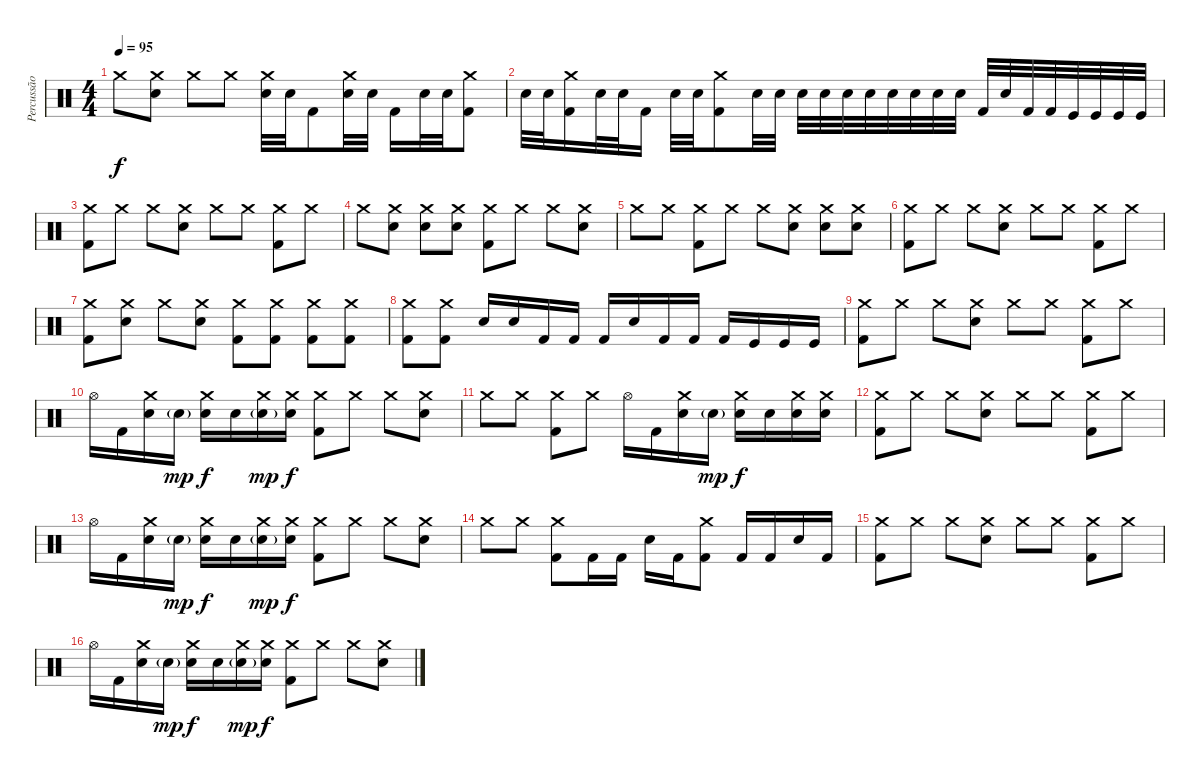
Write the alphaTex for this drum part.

\track ("Percussão" "Percussão") {instrument percussion}
\staff {score}
\articulation defaults
\ts (4 4)
\tempo 95
\clef neutral
\ks c "Crash medium (hit)".8{dy f}
("Snare (hit) 2" "Crash medium (hit)").8 "Crash medium (hit)".8 "Crash medium (hit)".8 ("Snare (hit) 2" "Crash medium (hit)").32 "Snare (hit) 2".32 "Kick (hit) 2".8 ("Snare (hit) 2" "Crash medium (hit)").32 "Snare (hit) 2".32 "Kick (hit) 2".16 "Snare (hit) 2".32 "Snare (hit) 2".32 ("Kick (hit) 2" "Crash medium (hit)").8 |
"Snare (hit) 2".32 "Snare (hit) 2".32 ("Kick (hit) 2" "Crash medium (hit)").16 "Snare (hit) 2".32 "Snare (hit) 2".32 "Kick (hit) 2".16 "Snare (hit) 2".32 "Snare (hit) 2".32 ("Kick (hit) 2" "Crash medium (hit)").8 "Snare (hit) 2".32 "Snare (hit) 2".32 "Snare (hit) 2".32 "Snare (hit) 2".32 "Electric Snare (hit)".32 "Electric Snare (hit)".32 "Electric Snare (hit)".32 "Electric Snare (hit)".32 "Snare (hit) 2".32 "Snare (hit) 2".32 "Kick (hit) 2".32 "Snare (hit) 2".32 "Kick (hit) 2".32 "Kick (hit) 2".32 "Kick (hit)".32 "Kick (hit)".32 "Kick (hit)".32 "Kick (hit)".32 |
("Kick (hit) 2" "Crash medium (hit)").8 "Crash medium (hit)".8 "Crash medium (hit)".8 ("Electric Snare (hit)" "Crash medium (hit)").8 "Crash medium (hit)".8 "Crash medium (hit)".8 ("Kick (hit) 2" "Crash medium (hit)").8 "Crash medium (hit)".8 |
"Crash medium (hit)".8 ("Electric Snare (hit)" "Crash medium (hit)").8 ("Electric Snare (hit)" "Crash medium (hit)").8 ("Electric Snare (hit)" "Crash medium (hit)").8 ("Kick (hit) 2" "Crash medium (hit)").8 "Crash medium (hit)".8 "Crash medium (hit)".8 ("Electric Snare (hit)" "Crash medium (hit)").8 |
"Crash medium (hit)".8 "Crash medium (hit)".8 ("Kick (hit) 2" "Crash medium (hit)").8 "Crash medium (hit)".8 "Crash medium (hit)".8 ("Electric Snare (hit)" "Crash medium (hit)").8 ("Electric Snare (hit)" "Crash medium (hit)").8 ("Electric Snare (hit)" "Crash medium (hit)").8 |
("Kick (hit) 2" "Crash medium (hit)").8 "Crash medium (hit)".8 "Crash medium (hit)".8 ("Electric Snare (hit)" "Crash medium (hit)").8 "Crash medium (hit)".8 "Crash medium (hit)".8 ("Kick (hit) 2" "Crash medium (hit)").8 "Crash medium (hit)".8 |
("Kick (hit) 2" "Crash medium (hit)").8 ("Electric Snare (hit)" "Crash medium (hit)").8 "Crash medium (hit)".8 ("Electric Snare (hit)" "Crash medium (hit)").8 ("Kick (hit) 2" "Crash medium (hit)").8 ("Kick (hit) 2" "Crash medium (hit)").8 ("Kick (hit) 2" "Crash medium (hit)").8 ("Kick (hit) 2" "Crash medium (hit)").8 |
("Kick (hit) 2" "Crash medium (hit)").8 ("Kick (hit) 2" "Crash medium (hit)").8 "Electric Snare (hit)".16 "Electric Snare (hit)".16 "Kick (hit) 2".16 "Kick (hit) 2".16 "Kick (hit) 2".16 "Electric Snare (hit)".16 "Kick (hit) 2".16 "Kick (hit) 2".16 "Kick (hit) 2".16 "Kick (hit)".16 "Kick (hit)".16 "Kick (hit)".16 |
("Kick (hit) 2" "Crash medium (hit)").8 "Crash medium (hit)".8 "Crash medium (hit)".8 ("Electric Snare (hit)" "Crash medium (hit)").8 "Crash medium (hit)".8 "Crash medium (hit)".8 ("Kick (hit) 2" "Crash medium (hit)").8 "Crash medium (hit)".8 |
"Hi-Hat (open)".16 "Kick (hit) 2".16 ("Snare (hit) 2" "Crash medium (hit)").16 "Electric Snare (hit)"{g}.16{dy mp} ("Electric Snare (hit)" "Crash medium (hit)").16{dy f} "Snare (hit) 2".16 ("Electric Snare (hit)"{g} "Crash medium (hit)").16{dy mp} ("Snare (hit) 2" "Crash medium (hit)").16{dy f} ("Kick (hit) 2" "Crash medium (hit)").8 "Crash medium (hit)".8 "Crash medium (hit)".8 ("Electric Snare (hit)" "Crash medium (hit)").8 |
"Crash medium (hit)".8 "Crash medium (hit)".8 ("Kick (hit) 2" "Crash medium (hit)").8 "Crash medium (hit)".8 "Hi-Hat (open)".16 "Kick (hit) 2".16 ("Snare (hit) 2" "Crash medium (hit)").16 "Electric Snare (hit)"{g}.16{dy mp} ("Electric Snare (hit)" "Crash medium (hit)").16{dy f} "Snare (hit) 2".16 ("Electric Snare (hit)" "Crash medium (hit)").16 ("Snare (hit) 2" "Crash medium (hit)").16 |
("Kick (hit) 2" "Crash medium (hit)").8 "Crash medium (hit)".8 "Crash medium (hit)".8 ("Electric Snare (hit)" "Crash medium (hit)").8 "Crash medium (hit)".8 "Crash medium (hit)".8 ("Kick (hit) 2" "Crash medium (hit)").8 "Crash medium (hit)".8 |
"Hi-Hat (open)".16 "Kick (hit) 2".16 ("Snare (hit) 2" "Crash medium (hit)").16 "Electric Snare (hit)"{g}.16{dy mp} ("Electric Snare (hit)" "Crash medium (hit)").16{dy f} "Snare (hit) 2".16 ("Electric Snare (hit)"{g} "Crash medium (hit)").16{dy mp} ("Snare (hit) 2" "Crash medium (hit)").16{dy f} ("Kick (hit) 2" "Crash medium (hit)").8 "Crash medium (hit)".8 "Crash medium (hit)".8 ("Electric Snare (hit)" "Crash medium (hit)").8 |
"Crash medium (hit)".8 "Crash medium (hit)".8 ("Kick (hit) 2" "Crash medium (hit)").8 "Kick (hit) 2".16 "Kick (hit) 2".16 "Electric Snare (hit)".16 "Kick (hit) 2".16 ("Kick (hit) 2" "Crash medium (hit)").8 "Kick (hit) 2".16 "Kick (hit) 2".16 "Electric Snare (hit)".16 "Kick (hit) 2".16 |
("Kick (hit) 2" "Crash medium (hit)").8 "Crash medium (hit)".8 "Crash medium (hit)".8 ("Electric Snare (hit)" "Crash medium (hit)").8 "Crash medium (hit)".8 "Crash medium (hit)".8 ("Kick (hit) 2" "Crash medium (hit)").8 "Crash medium (hit)".8 |
"Hi-Hat (open)".16 "Kick (hit) 2".16 ("Snare (hit) 2" "Crash medium (hit)").16 "Electric Snare (hit)"{g}.16{dy mp} ("Electric Snare (hit)" "Crash medium (hit)").16{dy f} "Snare (hit) 2".16 ("Electric Snare (hit)"{g} "Crash medium (hit)").16{dy mp} ("Snare (hit) 2" "Crash medium (hit)").16{dy f} ("Kick (hit) 2" "Crash medium (hit)").8 "Crash medium (hit)".8 "Crash medium (hit)".8 ("Electric Snare (hit)" "Crash medium (hit)").8
